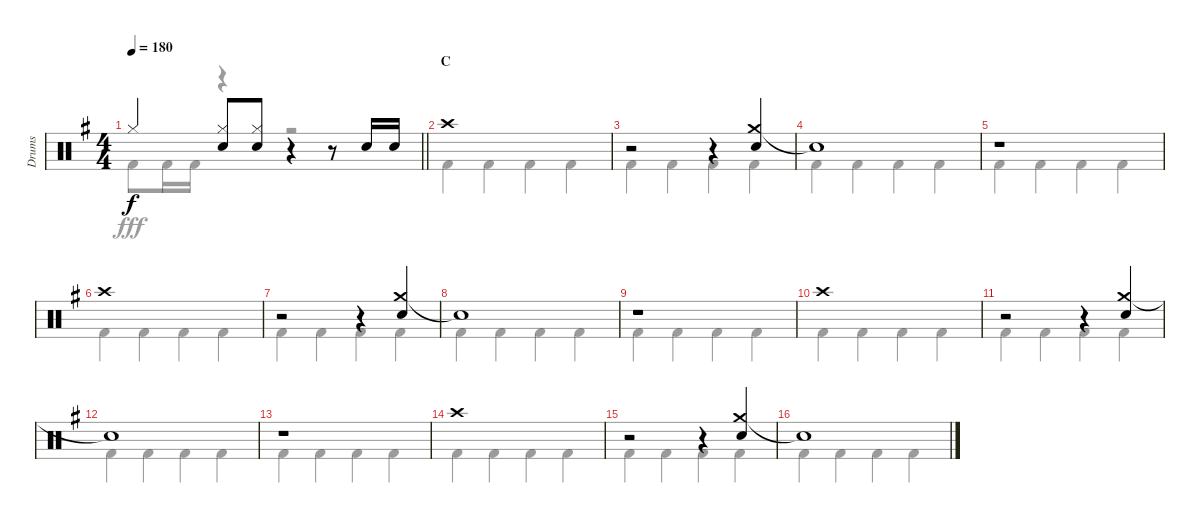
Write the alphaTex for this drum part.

\track ("Drums" "Drums") {instrument percussion}
\staff {score}
\articulation defaults
\voice
\ts (4 4)
\tempo 180
\clef neutral
\barLineRight lightlight
\ks g "Hi-Hat (closed)".4{dy f}
("Hi-Hat (closed)" "Snare (hit) 2").8 ("Hi-Hat (closed)" "Snare (hit) 2").8 r.4 r.8 "Snare (hit) 2".16 "Snare (hit) 2".16 |
\section ("" "C")
"Crash high (hit)".1 |
r.2 r.4 ("Crash medium (hit)" "Snare (hit) 2").4 |
"Snare (hit)"{t}.1 |
r.1 |
"Crash high (hit)".1 |
r.2 r.4 ("Crash medium (hit)" "Snare (hit) 2").4 |
"Snare (hit)"{t}.1 |
r.1 |
"Crash high (hit)".1 |
r.2 r.4 ("Crash medium (hit)" "Snare (hit) 2").4 |
"Snare (hit)"{t}.1 |
r.1 |
"Crash high (hit)".1 |
r.2 r.4 ("Crash medium (hit)" "Snare (hit) 2").4 |
"Snare (hit)"{t}.1
\voice
\clef neutral
\ottava regular
\simile none
\barLineRight lightlight
\ks g "Kick (hit) 2".8{dy fff} "Kick (hit) 2".16 "Kick (hit) 2".16
r.4 r.2 |
"Kick (hit) 2".4 "Kick (hit) 2".4 "Kick (hit) 2".4 "Kick (hit) 2".4 |
"Kick (hit) 2".4 "Kick (hit) 2".4 "Kick (hit) 2".4 "Kick (hit) 2".4 |
"Kick (hit) 2".4 "Kick (hit) 2".4 "Kick (hit) 2".4 "Kick (hit) 2".4 |
"Kick (hit) 2".4 "Kick (hit) 2".4 "Kick (hit) 2".4 "Kick (hit) 2".4 |
"Kick (hit) 2".4 "Kick (hit) 2".4 "Kick (hit) 2".4 "Kick (hit) 2".4 |
"Kick (hit) 2".4 "Kick (hit) 2".4 "Kick (hit) 2".4 "Kick (hit) 2".4 |
"Kick (hit) 2".4 "Kick (hit) 2".4 "Kick (hit) 2".4 "Kick (hit) 2".4 |
"Kick (hit) 2".4 "Kick (hit) 2".4 "Kick (hit) 2".4 "Kick (hit) 2".4 |
"Kick (hit) 2".4 "Kick (hit) 2".4 "Kick (hit) 2".4 "Kick (hit) 2".4 |
"Kick (hit) 2".4 "Kick (hit) 2".4 "Kick (hit) 2".4 "Kick (hit) 2".4 |
"Kick (hit) 2".4 "Kick (hit) 2".4 "Kick (hit) 2".4 "Kick (hit) 2".4 |
"Kick (hit) 2".4 "Kick (hit) 2".4 "Kick (hit) 2".4 "Kick (hit) 2".4 |
"Kick (hit) 2".4 "Kick (hit) 2".4 "Kick (hit) 2".4 "Kick (hit) 2".4 |
"Kick (hit) 2".4 "Kick (hit) 2".4 "Kick (hit) 2".4 "Kick (hit) 2".4 |
"Kick (hit) 2".4 "Kick (hit) 2".4 "Kick (hit) 2".4 "Kick (hit) 2".4
